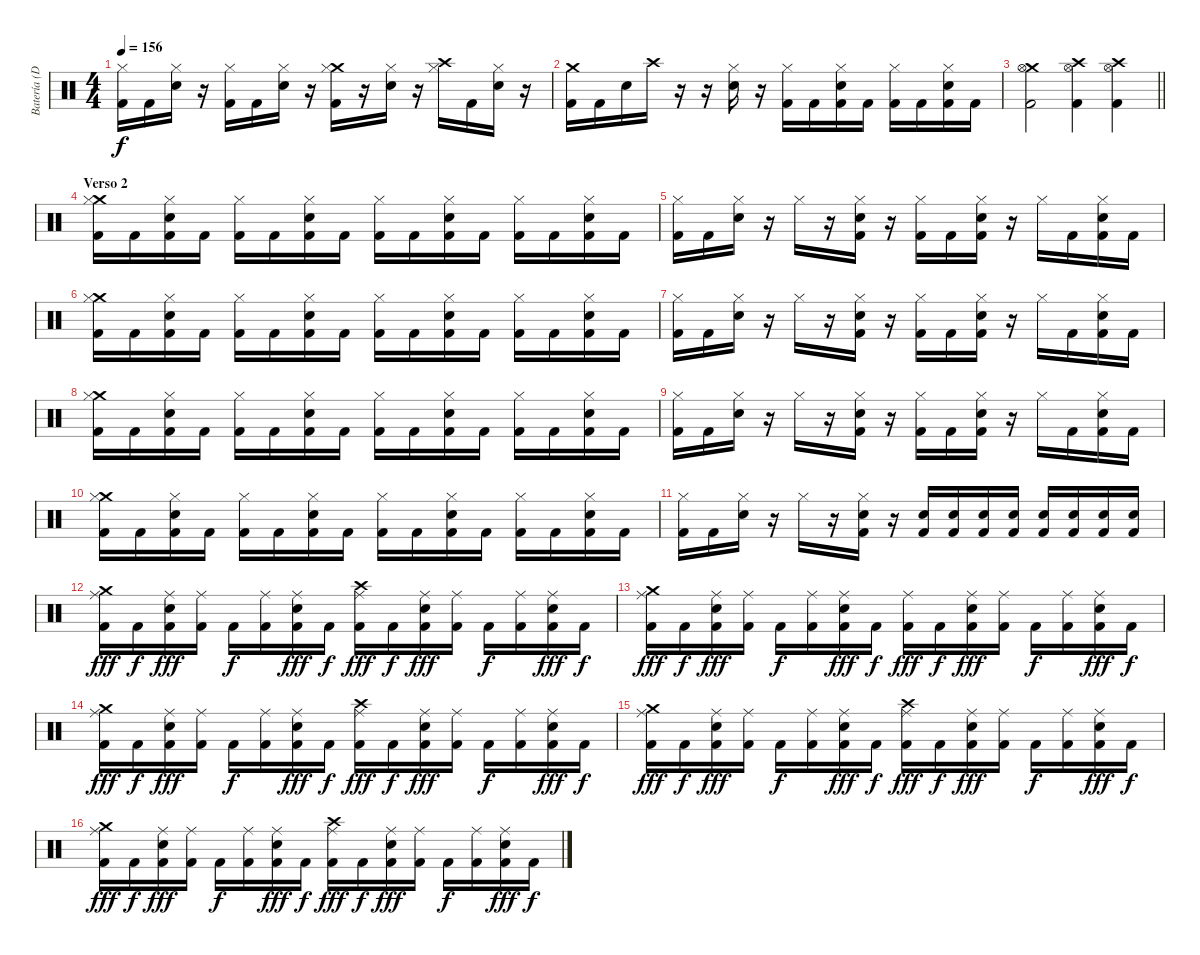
\track ("Batería (Dani)" "Batería (D") {instrument percussion}
\staff {score}
\articulation defaults
\ts (4 4)
\tempo 156
\clef neutral
\ks c
("Hi-Hat (closed)" "Kick (hit) 2").16{dy f} "Kick (hit) 2".16 ("Hi-Hat (closed)" "Electric Snare (hit)").16 r.16 ("Hi-Hat (closed)" "Kick (hit) 2").16 "Kick (hit) 2".16 ("Hi-Hat (closed)" "Electric Snare (hit)").16 r.16 ("Crash medium (hit)" "Hi-Hat (closed)" "Kick (hit) 2").16 r.16 ("Hi-Hat (closed)" "Electric Snare (hit)").16 r.16 ("Crash high (hit)" "Hi-Hat (closed)").16 "Kick (hit) 2".16 ("Hi-Hat (closed)" "Electric Snare (hit)").16 r.16 |
("Crash medium (hit)" "Kick (hit) 2").16 "Kick (hit) 2".16 "Electric Snare (hit)".16 "Crash high (hit)".16 r.16 r.16 ("Hi-Hat (closed)" "Electric Snare (hit)").16 r.16 ("Hi-Hat (closed)" "Kick (hit) 2").16 "Kick (hit) 2".16 ("Hi-Hat (closed)" "Electric Snare (hit)" "Kick (hit) 2").16 "Kick (hit) 2".16 ("Hi-Hat (closed)" "Kick (hit) 2").16 "Kick (hit) 2".16 ("Hi-Hat (closed)" "Electric Snare (hit)" "Kick (hit) 2").16 "Kick (hit) 2".16 |
\barLineRight lightlight
("Crash medium (hit)" "Hi-Hat (open)" "Kick (hit) 2").2 ("Crash high (hit)" "Hi-Hat (open)" "Kick (hit) 2").4 ("Crash high (hit)" "Hi-Hat (open)" "Kick (hit) 2").4 |
\section ("" "Verso 2")
("Crash medium (hit)" "Hi-Hat (closed)" "Kick (hit) 2").16 "Kick (hit) 2".16 ("Hi-Hat (closed)" "Electric Snare (hit)" "Kick (hit) 2").16 "Kick (hit) 2".16 ("Hi-Hat (closed)" "Kick (hit) 2").16 "Kick (hit) 2".16 ("Hi-Hat (closed)" "Electric Snare (hit)" "Kick (hit) 2").16 "Kick (hit) 2".16 ("Hi-Hat (closed)" "Kick (hit) 2").16 "Kick (hit) 2".16 ("Hi-Hat (closed)" "Electric Snare (hit)" "Kick (hit) 2").16 "Kick (hit) 2".16 ("Hi-Hat (closed)" "Kick (hit) 2").16 "Kick (hit) 2".16 ("Hi-Hat (closed)" "Electric Snare (hit)" "Kick (hit) 2").16 "Kick (hit) 2".16 |
("Hi-Hat (closed)" "Kick (hit) 2").16 "Kick (hit) 2".16 ("Hi-Hat (closed)" "Electric Snare (hit)").16 r.16 "Hi-Hat (closed)".16 r.16 ("Hi-Hat (closed)" "Electric Snare (hit)" "Kick (hit) 2").16 r.16 ("Hi-Hat (closed)" "Kick (hit) 2").16 "Kick (hit) 2".16 ("Hi-Hat (closed)" "Electric Snare (hit)" "Kick (hit) 2").16 r.16 "Hi-Hat (closed)".16 "Kick (hit) 2".16 ("Hi-Hat (closed)" "Electric Snare (hit)" "Kick (hit) 2").16 "Kick (hit) 2".16 |
("Crash medium (hit)" "Hi-Hat (closed)" "Kick (hit) 2").16 "Kick (hit) 2".16 ("Hi-Hat (closed)" "Electric Snare (hit)" "Kick (hit) 2").16 "Kick (hit) 2".16 ("Hi-Hat (closed)" "Kick (hit) 2").16 "Kick (hit) 2".16 ("Hi-Hat (closed)" "Electric Snare (hit)" "Kick (hit) 2").16 "Kick (hit) 2".16 ("Hi-Hat (closed)" "Kick (hit) 2").16 "Kick (hit) 2".16 ("Hi-Hat (closed)" "Electric Snare (hit)" "Kick (hit) 2").16 "Kick (hit) 2".16 ("Hi-Hat (closed)" "Kick (hit) 2").16 "Kick (hit) 2".16 ("Hi-Hat (closed)" "Electric Snare (hit)" "Kick (hit) 2").16 "Kick (hit) 2".16 |
("Hi-Hat (closed)" "Kick (hit) 2").16 "Kick (hit) 2".16 ("Hi-Hat (closed)" "Electric Snare (hit)").16 r.16 "Hi-Hat (closed)".16 r.16 ("Hi-Hat (closed)" "Electric Snare (hit)" "Kick (hit) 2").16 r.16 ("Hi-Hat (closed)" "Kick (hit) 2").16 "Kick (hit) 2".16 ("Hi-Hat (closed)" "Electric Snare (hit)" "Kick (hit) 2").16 r.16 "Hi-Hat (closed)".16 "Kick (hit) 2".16 ("Hi-Hat (closed)" "Electric Snare (hit)" "Kick (hit) 2").16 "Kick (hit) 2".16 |
("Crash medium (hit)" "Hi-Hat (closed)" "Kick (hit) 2").16 "Kick (hit) 2".16 ("Hi-Hat (closed)" "Electric Snare (hit)" "Kick (hit) 2").16 "Kick (hit) 2".16 ("Hi-Hat (closed)" "Kick (hit) 2").16 "Kick (hit) 2".16 ("Hi-Hat (closed)" "Electric Snare (hit)" "Kick (hit) 2").16 "Kick (hit) 2".16 ("Hi-Hat (closed)" "Kick (hit) 2").16 "Kick (hit) 2".16 ("Hi-Hat (closed)" "Electric Snare (hit)" "Kick (hit) 2").16 "Kick (hit) 2".16 ("Hi-Hat (closed)" "Kick (hit) 2").16 "Kick (hit) 2".16 ("Hi-Hat (closed)" "Electric Snare (hit)" "Kick (hit) 2").16 "Kick (hit) 2".16 |
("Hi-Hat (closed)" "Kick (hit) 2").16 "Kick (hit) 2".16 ("Hi-Hat (closed)" "Electric Snare (hit)").16 r.16 "Hi-Hat (closed)".16 r.16 ("Hi-Hat (closed)" "Electric Snare (hit)" "Kick (hit) 2").16 r.16 ("Hi-Hat (closed)" "Kick (hit) 2").16 "Kick (hit) 2".16 ("Hi-Hat (closed)" "Electric Snare (hit)" "Kick (hit) 2").16 r.16 "Hi-Hat (closed)".16 "Kick (hit) 2".16 ("Hi-Hat (closed)" "Electric Snare (hit)" "Kick (hit) 2").16 "Kick (hit) 2".16 |
("Crash medium (hit)" "Hi-Hat (closed)" "Kick (hit) 2").16 "Kick (hit) 2".16 ("Hi-Hat (closed)" "Electric Snare (hit)" "Kick (hit) 2").16 "Kick (hit) 2".16 ("Hi-Hat (closed)" "Kick (hit) 2").16 "Kick (hit) 2".16 ("Hi-Hat (closed)" "Electric Snare (hit)" "Kick (hit) 2").16 "Kick (hit) 2".16 ("Hi-Hat (closed)" "Kick (hit) 2").16 "Kick (hit) 2".16 ("Hi-Hat (closed)" "Electric Snare (hit)" "Kick (hit) 2").16 "Kick (hit) 2".16 ("Hi-Hat (closed)" "Kick (hit) 2").16 "Kick (hit) 2".16 ("Hi-Hat (closed)" "Electric Snare (hit)" "Kick (hit) 2").16 "Kick (hit) 2".16 |
("Hi-Hat (closed)" "Kick (hit) 2").16 "Kick (hit) 2".16 ("Hi-Hat (closed)" "Electric Snare (hit)").16 r.16 "Hi-Hat (closed)".16 r.16 ("Hi-Hat (closed)" "Electric Snare (hit)" "Kick (hit) 2").16 r.16 ("Electric Snare (hit)" "Kick (hit) 2").16 ("Electric Snare (hit)" "Kick (hit) 2").16 ("Electric Snare (hit)" "Kick (hit) 2").16 ("Electric Snare (hit)" "Kick (hit) 2").16 ("Electric Snare (hit)" "Kick (hit) 2").16 ("Electric Snare (hit)" "Kick (hit) 2").16 ("Electric Snare (hit)" "Kick (hit) 2").16 ("Electric Snare (hit)" "Kick (hit) 2").16 |
("Crash medium (hit)" "Ride (middle)" "Kick (hit) 2").16{dy fff} "Kick (hit) 2".16{dy f} ("Ride (middle)" "Electric Snare (hit)" "Kick (hit) 2").16{dy fff} ("Ride (middle)" "Kick (hit) 2").16 "Kick (hit) 2".16{dy f} ("Ride (middle)" "Kick (hit) 2").16 ("Ride (middle)" "Electric Snare (hit)" "Kick (hit) 2").16{dy fff} "Kick (hit) 2".16{dy f} ("Crash high (hit)" "Ride (middle)" "Kick (hit) 2").16{dy fff} "Kick (hit) 2".16{dy f} ("Ride (middle)" "Electric Snare (hit)" "Kick (hit) 2").16{dy fff} ("Ride (middle)" "Kick (hit) 2").16 "Kick (hit) 2".16{dy f} ("Ride (middle)" "Kick (hit) 2").16 ("Ride (middle)" "Electric Snare (hit)" "Kick (hit) 2").16{dy fff} "Kick (hit) 2".16{dy f} |
("Crash medium (hit)" "Ride (middle)" "Kick (hit) 2").16{dy fff} "Kick (hit) 2".16{dy f} ("Ride (middle)" "Electric Snare (hit)" "Kick (hit) 2").16{dy fff} ("Ride (middle)" "Kick (hit) 2").16 "Kick (hit) 2".16{dy f} ("Ride (middle)" "Kick (hit) 2").16 ("Ride (middle)" "Electric Snare (hit)" "Kick (hit) 2").16{dy fff} "Kick (hit) 2".16{dy f} ("Ride (middle)" "Kick (hit) 2").16{dy fff} "Kick (hit) 2".16{dy f} ("Ride (middle)" "Electric Snare (hit)" "Kick (hit) 2").16{dy fff} ("Ride (middle)" "Kick (hit) 2").16 "Kick (hit) 2".16{dy f} ("Ride (middle)" "Kick (hit) 2").16 ("Ride (middle)" "Electric Snare (hit)" "Kick (hit) 2").16{dy fff} "Kick (hit) 2".16{dy f} |
("Crash medium (hit)" "Ride (middle)" "Kick (hit) 2").16{dy fff} "Kick (hit) 2".16{dy f} ("Ride (middle)" "Electric Snare (hit)" "Kick (hit) 2").16{dy fff} ("Ride (middle)" "Kick (hit) 2").16 "Kick (hit) 2".16{dy f} ("Ride (middle)" "Kick (hit) 2").16 ("Ride (middle)" "Electric Snare (hit)" "Kick (hit) 2").16{dy fff} "Kick (hit) 2".16{dy f} ("Crash high (hit)" "Ride (middle)" "Kick (hit) 2").16{dy fff} "Kick (hit) 2".16{dy f} ("Ride (middle)" "Electric Snare (hit)" "Kick (hit) 2").16{dy fff} ("Ride (middle)" "Kick (hit) 2").16 "Kick (hit) 2".16{dy f} ("Ride (middle)" "Kick (hit) 2").16 ("Ride (middle)" "Electric Snare (hit)" "Kick (hit) 2").16{dy fff} "Kick (hit) 2".16{dy f} |
("Crash medium (hit)" "Ride (middle)" "Kick (hit) 2").16{dy fff} "Kick (hit) 2".16{dy f} ("Ride (middle)" "Electric Snare (hit)" "Kick (hit) 2").16{dy fff} ("Ride (middle)" "Kick (hit) 2").16 "Kick (hit) 2".16{dy f} ("Ride (middle)" "Kick (hit) 2").16 ("Ride (middle)" "Electric Snare (hit)" "Kick (hit) 2").16{dy fff} "Kick (hit) 2".16{dy f} ("Crash high (hit)" "Ride (middle)" "Kick (hit) 2").16{dy fff} "Kick (hit) 2".16{dy f} ("Ride (middle)" "Electric Snare (hit)" "Kick (hit) 2").16{dy fff} ("Ride (middle)" "Kick (hit) 2").16 "Kick (hit) 2".16{dy f} ("Ride (middle)" "Kick (hit) 2").16 ("Ride (middle)" "Electric Snare (hit)" "Kick (hit) 2").16{dy fff} "Kick (hit) 2".16{dy f} |
("Crash medium (hit)" "Ride (middle)" "Kick (hit) 2").16{dy fff} "Kick (hit) 2".16{dy f} ("Ride (middle)" "Electric Snare (hit)" "Kick (hit) 2").16{dy fff} ("Ride (middle)" "Kick (hit) 2").16 "Kick (hit) 2".16{dy f} ("Ride (middle)" "Kick (hit) 2").16 ("Ride (middle)" "Electric Snare (hit)" "Kick (hit) 2").16{dy fff} "Kick (hit) 2".16{dy f} ("Crash high (hit)" "Ride (middle)" "Kick (hit) 2").16{dy fff} "Kick (hit) 2".16{dy f} ("Ride (middle)" "Electric Snare (hit)" "Kick (hit) 2").16{dy fff} ("Ride (middle)" "Kick (hit) 2").16 "Kick (hit) 2".16{dy f} ("Ride (middle)" "Kick (hit) 2").16 ("Ride (middle)" "Electric Snare (hit)" "Kick (hit) 2").16{dy fff} "Kick (hit) 2".16{dy f}
